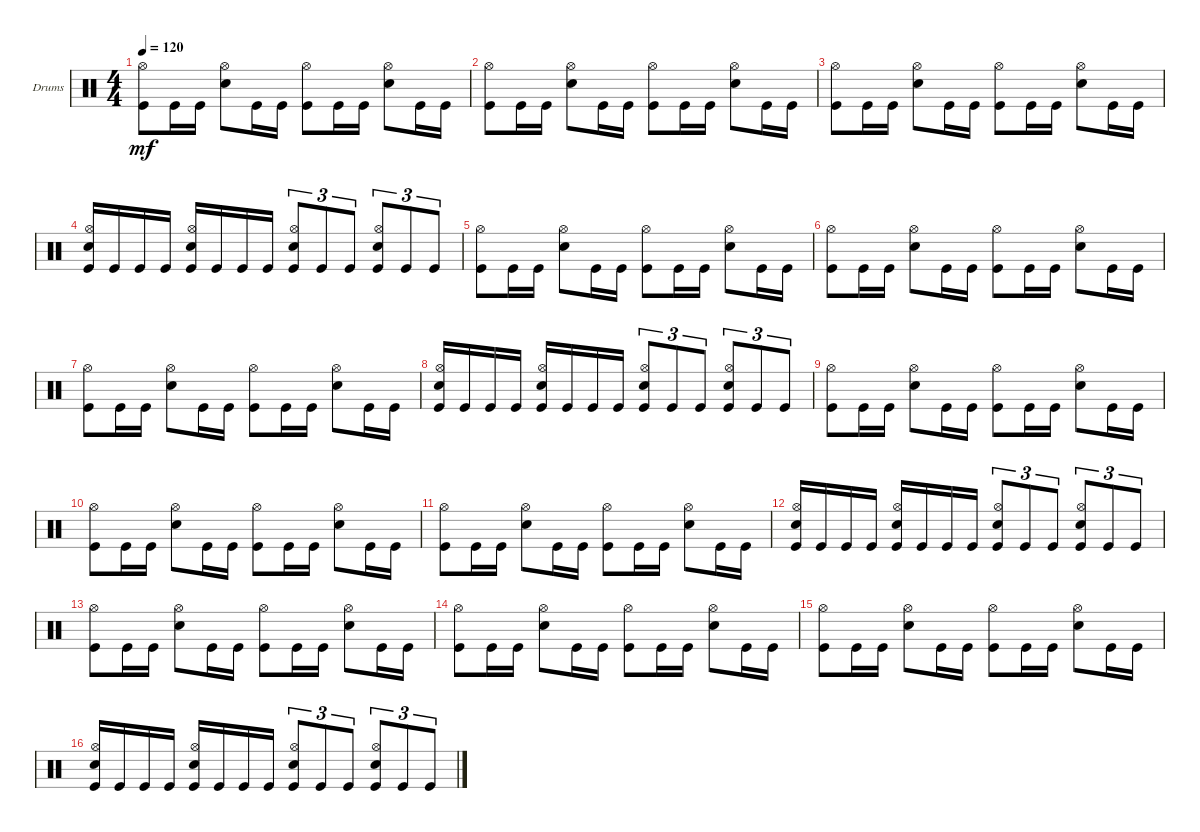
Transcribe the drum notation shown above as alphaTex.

\defaultSystemsLayout 4
\bracketExtendMode groupsimilarinstruments
\firstSystemTrackNameOrientation horizontal
\otherSystemsTrackNameOrientation horizontal
\track ("Drumkit" "Drums") {instrument percussion}
\staff {score}
\articulation defaults
\ts (4 4)
\tempo 120
\clef neutral
\scale
0.474178
\ks c
("Kick (hit)" "Hi-Hat (open)").8{dy mf} "Kick (hit)".16 "Kick (hit)".16 ("Snare (hit) 2" "Hi-Hat (open)").8 "Kick (hit)".16 "Kick (hit)".16 ("Kick (hit)" "Hi-Hat (open)").8 "Kick (hit)".16 "Kick (hit)".16 ("Snare (hit) 2" "Hi-Hat (open)").8 "Kick (hit)".16 "Kick (hit)".16 |
\scale
0.262911 ("Kick (hit)" "Hi-Hat (open)").8 "Kick (hit)".16 "Kick (hit)".16 ("Snare (hit) 2" "Hi-Hat (open)").8 "Kick (hit)".16 "Kick (hit)".16 ("Kick (hit)" "Hi-Hat (open)").8 "Kick (hit)".16 "Kick (hit)".16 ("Snare (hit) 2" "Hi-Hat (open)").8 "Kick (hit)".16 "Kick (hit)".16 |
\scale
0.262911 ("Kick (hit)" "Hi-Hat (open)").8 "Kick (hit)".16 "Kick (hit)".16 ("Snare (hit) 2" "Hi-Hat (open)").8 "Kick (hit)".16 "Kick (hit)".16 ("Kick (hit)" "Hi-Hat (open)").8 "Kick (hit)".16 "Kick (hit)".16 ("Snare (hit) 2" "Hi-Hat (open)").8 "Kick (hit)".16 "Kick (hit)".16 |
\scale
0.333333 ("Kick (hit)" "Snare (hit) 2" "Hi-Hat (open)").16 "Kick (hit)".16 "Kick (hit)".16 "Kick (hit)".16 ("Kick (hit)" "Snare (hit) 2" "Hi-Hat (open)").16 "Kick (hit)".16 "Kick (hit)".16 "Kick (hit)".16 ("Kick (hit)" "Snare (hit) 2" "Hi-Hat (open)").8{tu (3 2)} "Kick (hit)".8{tu (3 2)} "Kick (hit)".8{tu (3 2)} ("Kick (hit)" "Snare (hit) 2" "Hi-Hat (open)").8{tu (3 2)} "Kick (hit)".8{tu (3 2)} "Kick (hit)".8{tu (3 2)} |
\scale
0.333333 ("Kick (hit)" "Hi-Hat (open)").8 "Kick (hit)".16 "Kick (hit)".16 ("Snare (hit) 2" "Hi-Hat (open)").8 "Kick (hit)".16 "Kick (hit)".16 ("Kick (hit)" "Hi-Hat (open)").8 "Kick (hit)".16 "Kick (hit)".16 ("Snare (hit) 2" "Hi-Hat (open)").8 "Kick (hit)".16 "Kick (hit)".16 |
\scale
0.333333 ("Kick (hit)" "Hi-Hat (open)").8 "Kick (hit)".16 "Kick (hit)".16 ("Snare (hit) 2" "Hi-Hat (open)").8 "Kick (hit)".16 "Kick (hit)".16 ("Kick (hit)" "Hi-Hat (open)").8 "Kick (hit)".16 "Kick (hit)".16 ("Snare (hit) 2" "Hi-Hat (open)").8 "Kick (hit)".16 "Kick (hit)".16 |
\scale
0.333333 ("Kick (hit)" "Hi-Hat (open)").8 "Kick (hit)".16 "Kick (hit)".16 ("Snare (hit) 2" "Hi-Hat (open)").8 "Kick (hit)".16 "Kick (hit)".16 ("Kick (hit)" "Hi-Hat (open)").8 "Kick (hit)".16 "Kick (hit)".16 ("Snare (hit) 2" "Hi-Hat (open)").8 "Kick (hit)".16 "Kick (hit)".16 |
\scale
0.333333 ("Kick (hit)" "Snare (hit) 2" "Hi-Hat (open)").16 "Kick (hit)".16 "Kick (hit)".16 "Kick (hit)".16 ("Kick (hit)" "Snare (hit) 2" "Hi-Hat (open)").16 "Kick (hit)".16 "Kick (hit)".16 "Kick (hit)".16 ("Kick (hit)" "Snare (hit) 2" "Hi-Hat (open)").8{tu (3 2)} "Kick (hit)".8{tu (3 2)} "Kick (hit)".8{tu (3 2)} ("Kick (hit)" "Snare (hit) 2" "Hi-Hat (open)").8{tu (3 2)} "Kick (hit)".8{tu (3 2)} "Kick (hit)".8{tu (3 2)} |
\scale
0.333333 ("Kick (hit)" "Hi-Hat (open)").8 "Kick (hit)".16 "Kick (hit)".16 ("Snare (hit) 2" "Hi-Hat (open)").8 "Kick (hit)".16 "Kick (hit)".16 ("Kick (hit)" "Hi-Hat (open)").8 "Kick (hit)".16 "Kick (hit)".16 ("Snare (hit) 2" "Hi-Hat (open)").8 "Kick (hit)".16 "Kick (hit)".16 |
\scale
0.333333 ("Kick (hit)" "Hi-Hat (open)").8 "Kick (hit)".16 "Kick (hit)".16 ("Snare (hit) 2" "Hi-Hat (open)").8 "Kick (hit)".16 "Kick (hit)".16 ("Kick (hit)" "Hi-Hat (open)").8 "Kick (hit)".16 "Kick (hit)".16 ("Snare (hit) 2" "Hi-Hat (open)").8 "Kick (hit)".16 "Kick (hit)".16 |
\scale
0.333333 ("Kick (hit)" "Hi-Hat (open)").8 "Kick (hit)".16 "Kick (hit)".16 ("Snare (hit) 2" "Hi-Hat (open)").8 "Kick (hit)".16 "Kick (hit)".16 ("Kick (hit)" "Hi-Hat (open)").8 "Kick (hit)".16 "Kick (hit)".16 ("Snare (hit) 2" "Hi-Hat (open)").8 "Kick (hit)".16 "Kick (hit)".16 |
\scale
0.333333 ("Kick (hit)" "Snare (hit) 2" "Hi-Hat (open)").16 "Kick (hit)".16 "Kick (hit)".16 "Kick (hit)".16 ("Kick (hit)" "Snare (hit) 2" "Hi-Hat (open)").16 "Kick (hit)".16 "Kick (hit)".16 "Kick (hit)".16 ("Kick (hit)" "Snare (hit) 2" "Hi-Hat (open)").8{tu (3 2)} "Kick (hit)".8{tu (3 2)} "Kick (hit)".8{tu (3 2)} ("Kick (hit)" "Snare (hit) 2" "Hi-Hat (open)").8{tu (3 2)} "Kick (hit)".8{tu (3 2)} "Kick (hit)".8{tu (3 2)} |
\scale
0.333333 ("Kick (hit)" "Hi-Hat (open)").8 "Kick (hit)".16 "Kick (hit)".16 ("Snare (hit) 2" "Hi-Hat (open)").8 "Kick (hit)".16 "Kick (hit)".16 ("Kick (hit)" "Hi-Hat (open)").8 "Kick (hit)".16 "Kick (hit)".16 ("Snare (hit) 2" "Hi-Hat (open)").8 "Kick (hit)".16 "Kick (hit)".16 |
\scale
0.333333 ("Kick (hit)" "Hi-Hat (open)").8 "Kick (hit)".16 "Kick (hit)".16 ("Snare (hit) 2" "Hi-Hat (open)").8 "Kick (hit)".16 "Kick (hit)".16 ("Kick (hit)" "Hi-Hat (open)").8 "Kick (hit)".16 "Kick (hit)".16 ("Snare (hit) 2" "Hi-Hat (open)").8 "Kick (hit)".16 "Kick (hit)".16 |
\scale
0.333333 ("Kick (hit)" "Hi-Hat (open)").8 "Kick (hit)".16 "Kick (hit)".16 ("Snare (hit) 2" "Hi-Hat (open)").8 "Kick (hit)".16 "Kick (hit)".16 ("Kick (hit)" "Hi-Hat (open)").8 "Kick (hit)".16 "Kick (hit)".16 ("Snare (hit) 2" "Hi-Hat (open)").8 "Kick (hit)".16 "Kick (hit)".16 |
("Kick (hit)" "Snare (hit) 2" "Hi-Hat (open)").16 "Kick (hit)".16 "Kick (hit)".16 "Kick (hit)".16 ("Kick (hit)" "Snare (hit) 2" "Hi-Hat (open)").16 "Kick (hit)".16 "Kick (hit)".16 "Kick (hit)".16 ("Kick (hit)" "Snare (hit) 2" "Hi-Hat (open)").8{tu (3 2)} "Kick (hit)".8{tu (3 2)} "Kick (hit)".8{tu (3 2)} ("Kick (hit)" "Snare (hit) 2" "Hi-Hat (open)").8{tu (3 2)} "Kick (hit)".8{tu (3 2)} "Kick (hit)".8{tu (3 2)}
